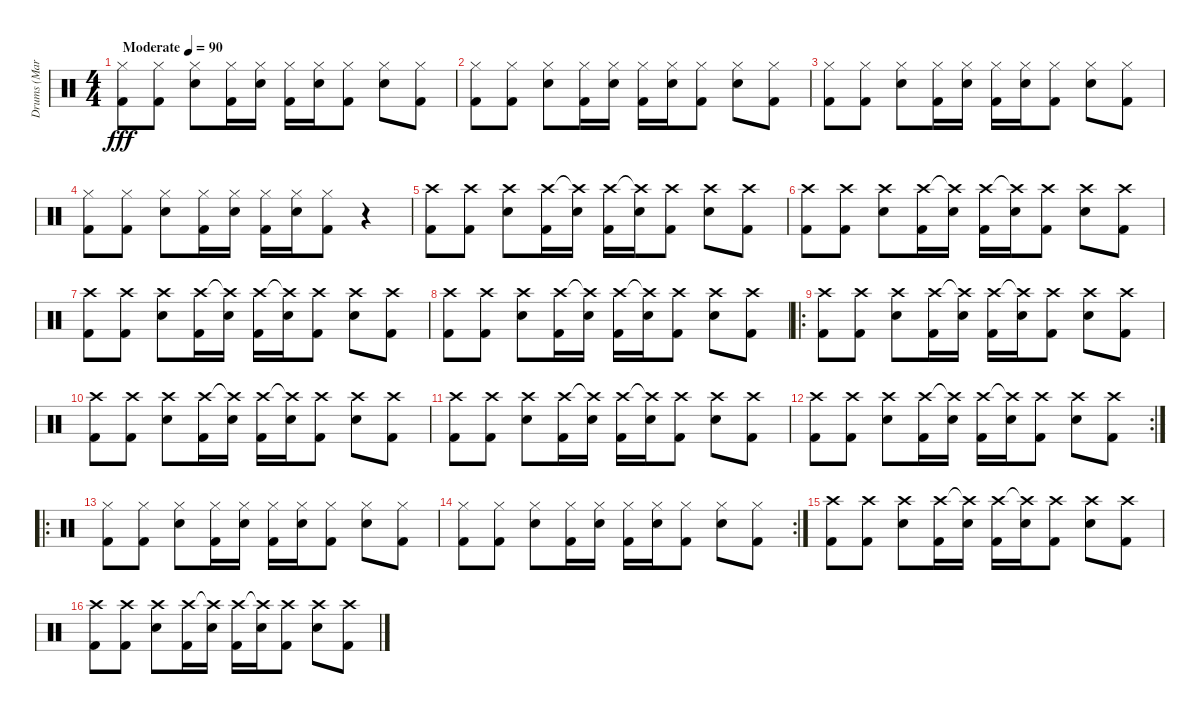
\track ("Drums (Mark Escueta)" "Drums (Mar") {instrument percussion}
\staff {score}
\articulation defaults
\ts (4 4)
\tempo (90 "Moderate")
\clef neutral
\ks c
("Hi-Hat (closed)" "Kick (hit) 2").8{dy fff} ("Hi-Hat (closed)" "Kick (hit) 2").8 ("Hi-Hat (closed)" "Snare (hit) 2").8 ("Hi-Hat (closed)" "Kick (hit) 2").16 ("Hi-Hat (closed)" "Snare (hit) 2").16 ("Hi-Hat (closed)" "Kick (hit) 2").16 ("Hi-Hat (closed)" "Snare (hit) 2").16 ("Hi-Hat (closed)" "Kick (hit) 2").8 ("Hi-Hat (closed)" "Snare (hit) 2").8 ("Hi-Hat (closed)" "Kick (hit) 2").8 |
("Hi-Hat (closed)" "Kick (hit) 2").8 ("Hi-Hat (closed)" "Kick (hit) 2").8 ("Hi-Hat (closed)" "Snare (hit) 2").8 ("Hi-Hat (closed)" "Kick (hit) 2").16 ("Hi-Hat (closed)" "Snare (hit) 2").16 ("Hi-Hat (closed)" "Kick (hit) 2").16 ("Hi-Hat (closed)" "Snare (hit) 2").16 ("Hi-Hat (closed)" "Kick (hit) 2").8 ("Hi-Hat (closed)" "Snare (hit) 2").8 ("Hi-Hat (closed)" "Kick (hit) 2").8 |
("Hi-Hat (closed)" "Kick (hit) 2").8 ("Hi-Hat (closed)" "Kick (hit) 2").8 ("Hi-Hat (closed)" "Snare (hit) 2").8 ("Hi-Hat (closed)" "Kick (hit) 2").16 ("Hi-Hat (closed)" "Snare (hit) 2").16 ("Hi-Hat (closed)" "Kick (hit) 2").16 ("Hi-Hat (closed)" "Snare (hit) 2").16 ("Hi-Hat (closed)" "Kick (hit) 2").8 ("Hi-Hat (closed)" "Snare (hit) 2").8 ("Hi-Hat (closed)" "Kick (hit) 2").8 |
("Hi-Hat (closed)" "Kick (hit) 2").8 ("Hi-Hat (closed)" "Kick (hit) 2").8 ("Hi-Hat (closed)" "Snare (hit) 2").8 ("Hi-Hat (closed)" "Kick (hit) 2").16 ("Hi-Hat (closed)" "Snare (hit) 2").16 ("Hi-Hat (closed)" "Kick (hit) 2").16 ("Hi-Hat (closed)" "Snare (hit) 2").16 ("Hi-Hat (closed)" "Kick (hit) 2").8 r.4 |
("Crash high (hit)" "Kick (hit) 2").8 ("Crash high (hit)" "Kick (hit) 2").8 ("Crash high (hit)" "Snare (hit) 2").8 ("Crash high (hit)" "Kick (hit) 2").16 ("Crash high (hit)"{t} "Snare (hit) 2").16 ("Crash high (hit)" "Kick (hit) 2").16 ("Crash high (hit)"{t} "Snare (hit) 2").16 ("Crash high (hit)" "Kick (hit) 2").8 ("Crash high (hit)" "Snare (hit) 2").8 ("Crash high (hit)" "Kick (hit) 2").8 |
("Crash high (hit)" "Kick (hit) 2").8 ("Crash high (hit)" "Kick (hit) 2").8 ("Crash high (hit)" "Snare (hit) 2").8 ("Crash high (hit)" "Kick (hit) 2").16 ("Crash high (hit)"{t} "Snare (hit) 2").16 ("Crash high (hit)" "Kick (hit) 2").16 ("Crash high (hit)"{t} "Snare (hit) 2").16 ("Crash high (hit)" "Kick (hit) 2").8 ("Crash high (hit)" "Snare (hit) 2").8 ("Crash high (hit)" "Kick (hit) 2").8 |
("Crash high (hit)" "Kick (hit) 2").8 ("Crash high (hit)" "Kick (hit) 2").8 ("Crash high (hit)" "Snare (hit) 2").8 ("Crash high (hit)" "Kick (hit) 2").16 ("Crash high (hit)"{t} "Snare (hit) 2").16 ("Crash high (hit)" "Kick (hit) 2").16 ("Crash high (hit)"{t} "Snare (hit) 2").16 ("Crash high (hit)" "Kick (hit) 2").8 ("Crash high (hit)" "Snare (hit) 2").8 ("Crash high (hit)" "Kick (hit) 2").8 |
("Crash high (hit)" "Kick (hit) 2").8 ("Crash high (hit)" "Kick (hit) 2").8 ("Crash high (hit)" "Snare (hit) 2").8 ("Crash high (hit)" "Kick (hit) 2").16 ("Crash high (hit)"{t} "Snare (hit) 2").16 ("Crash high (hit)" "Kick (hit) 2").16 ("Crash high (hit)"{t} "Snare (hit) 2").16 ("Crash high (hit)" "Kick (hit) 2").8 ("Crash high (hit)" "Snare (hit) 2").8 ("Crash high (hit)" "Kick (hit) 2").8 |
\ro
("Crash high (hit)" "Kick (hit) 2").8 ("Crash high (hit)" "Kick (hit) 2").8 ("Crash high (hit)" "Snare (hit) 2").8 ("Crash high (hit)" "Kick (hit) 2").16 ("Crash high (hit)"{t} "Snare (hit) 2").16 ("Crash high (hit)" "Kick (hit) 2").16 ("Crash high (hit)"{t} "Snare (hit) 2").16 ("Crash high (hit)" "Kick (hit) 2").8 ("Crash high (hit)" "Snare (hit) 2").8 ("Crash high (hit)" "Kick (hit) 2").8 |
("Crash high (hit)" "Kick (hit) 2").8 ("Crash high (hit)" "Kick (hit) 2").8 ("Crash high (hit)" "Snare (hit) 2").8 ("Crash high (hit)" "Kick (hit) 2").16 ("Crash high (hit)"{t} "Snare (hit) 2").16 ("Crash high (hit)" "Kick (hit) 2").16 ("Crash high (hit)"{t} "Snare (hit) 2").16 ("Crash high (hit)" "Kick (hit) 2").8 ("Crash high (hit)" "Snare (hit) 2").8 ("Crash high (hit)" "Kick (hit) 2").8 |
("Crash high (hit)" "Kick (hit) 2").8 ("Crash high (hit)" "Kick (hit) 2").8 ("Crash high (hit)" "Snare (hit) 2").8 ("Crash high (hit)" "Kick (hit) 2").16 ("Crash high (hit)"{t} "Snare (hit) 2").16 ("Crash high (hit)" "Kick (hit) 2").16 ("Crash high (hit)"{t} "Snare (hit) 2").16 ("Crash high (hit)" "Kick (hit) 2").8 ("Crash high (hit)" "Snare (hit) 2").8 ("Crash high (hit)" "Kick (hit) 2").8 |
\rc 2
("Crash high (hit)" "Kick (hit) 2").8 ("Crash high (hit)" "Kick (hit) 2").8 ("Crash high (hit)" "Snare (hit) 2").8 ("Crash high (hit)" "Kick (hit) 2").16 ("Crash high (hit)"{t} "Snare (hit) 2").16 ("Crash high (hit)" "Kick (hit) 2").16 ("Crash high (hit)"{t} "Snare (hit) 2").16 ("Crash high (hit)" "Kick (hit) 2").8 ("Crash high (hit)" "Snare (hit) 2").8 ("Crash high (hit)" "Kick (hit) 2").8 |
\ro
("Hi-Hat (closed)" "Kick (hit) 2").8 ("Hi-Hat (closed)" "Kick (hit) 2").8 ("Hi-Hat (closed)" "Snare (hit) 2").8 ("Hi-Hat (closed)" "Kick (hit) 2").16 ("Hi-Hat (closed)" "Snare (hit) 2").16 ("Hi-Hat (closed)" "Kick (hit) 2").16 ("Hi-Hat (closed)" "Snare (hit) 2").16 ("Hi-Hat (closed)" "Kick (hit) 2").8 ("Hi-Hat (closed)" "Snare (hit) 2").8 ("Hi-Hat (closed)" "Kick (hit) 2").8 |
\rc 2
("Hi-Hat (closed)" "Kick (hit) 2").8 ("Hi-Hat (closed)" "Kick (hit) 2").8 ("Hi-Hat (closed)" "Snare (hit) 2").8 ("Hi-Hat (closed)" "Kick (hit) 2").16 ("Hi-Hat (closed)" "Snare (hit) 2").16 ("Hi-Hat (closed)" "Kick (hit) 2").16 ("Hi-Hat (closed)" "Snare (hit) 2").16 ("Hi-Hat (closed)" "Kick (hit) 2").8 ("Hi-Hat (closed)" "Snare (hit) 2").8 ("Hi-Hat (closed)" "Kick (hit) 2").8 |
("Crash high (hit)" "Kick (hit) 2").8 ("Crash high (hit)" "Kick (hit) 2").8 ("Crash high (hit)" "Snare (hit) 2").8 ("Crash high (hit)" "Kick (hit) 2").16 ("Crash high (hit)"{t} "Snare (hit) 2").16 ("Crash high (hit)" "Kick (hit) 2").16 ("Crash high (hit)"{t} "Snare (hit) 2").16 ("Crash high (hit)" "Kick (hit) 2").8 ("Crash high (hit)" "Snare (hit) 2").8 ("Crash high (hit)" "Kick (hit) 2").8 |
("Crash high (hit)" "Kick (hit) 2").8 ("Crash high (hit)" "Kick (hit) 2").8 ("Crash high (hit)" "Snare (hit) 2").8 ("Crash high (hit)" "Kick (hit) 2").16 ("Crash high (hit)"{t} "Snare (hit) 2").16 ("Crash high (hit)" "Kick (hit) 2").16 ("Crash high (hit)"{t} "Snare (hit) 2").16 ("Crash high (hit)" "Kick (hit) 2").8 ("Crash high (hit)" "Snare (hit) 2").8 ("Crash high (hit)" "Kick (hit) 2").8
